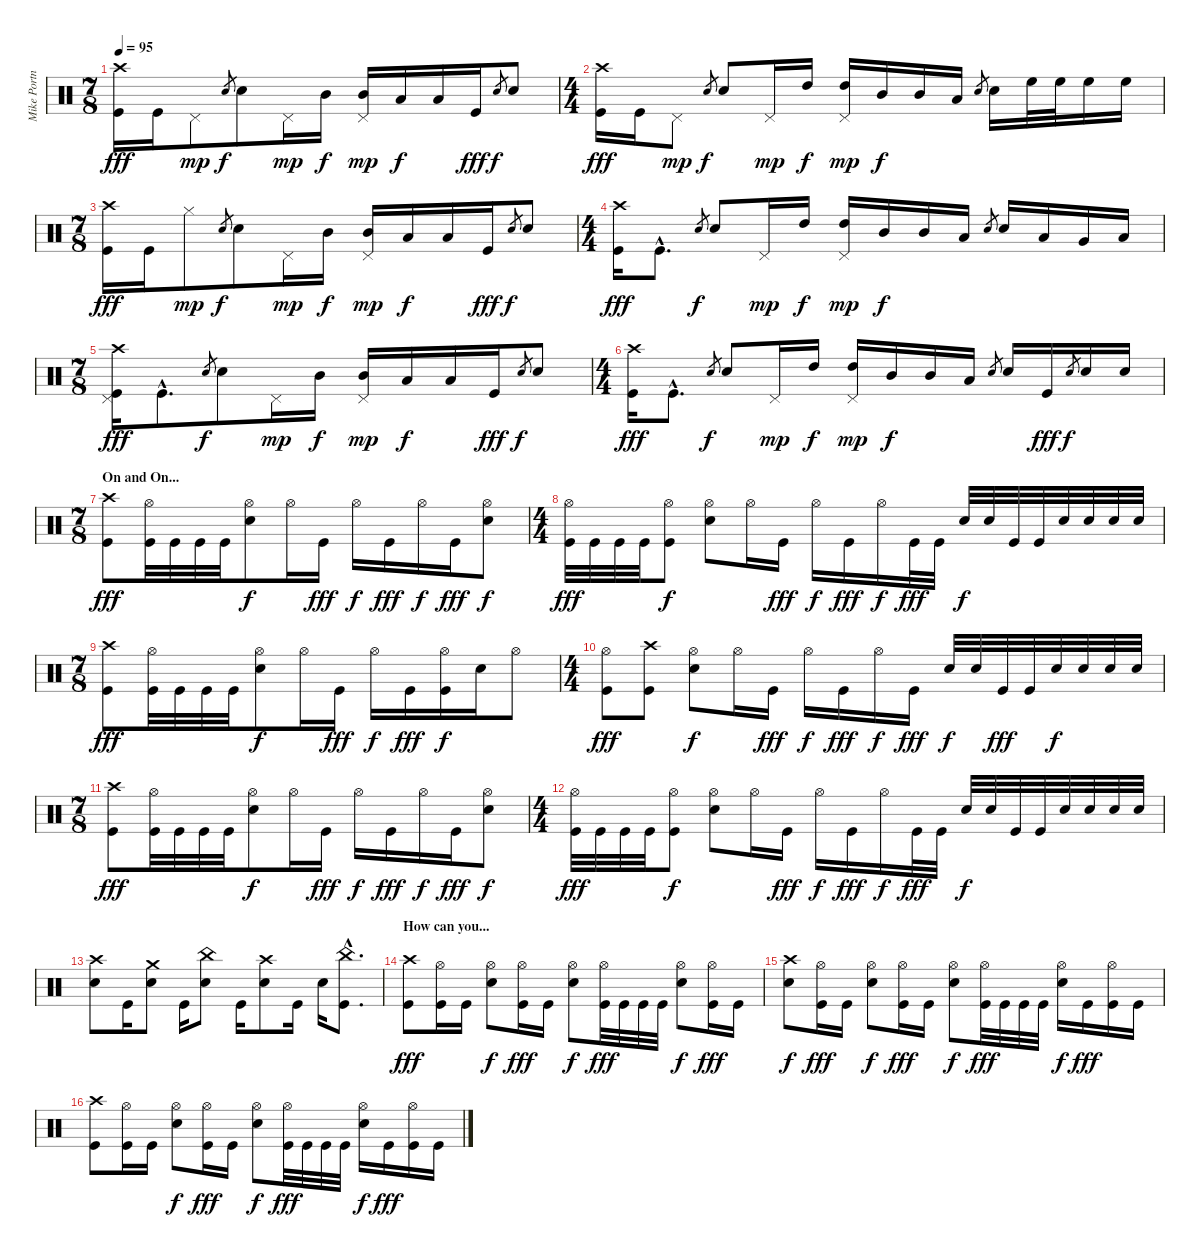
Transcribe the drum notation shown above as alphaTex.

\track ("Mike Portnoy" "Mike Portn") {instrument percussion}
\staff {score}
\articulation defaults
\ts (7 8)
\tempo 95
\clef neutral
\ks c
("Crash high (hit)" "Kick (hit)").16{dy fff} "Kick (hit)".16 "Pedal Hi-Hat (hit)".8{dy mp} "Electric Snare (hit)".8{gr dy f} "Electric Snare (hit)".8 "Pedal Hi-Hat (hit)".16{dy mp} "Mid Tom (hit)".16{dy f} ("Mid Tom (hit)" "Pedal Hi-Hat (hit)").16{dy mp} "Low Tom (hit)".16{dy f} "Low Tom (hit)".16 "Kick (hit)".16{dy fff} "Electric Snare (hit)".8{gr dy f} "Electric Snare (hit)".8 |
\ts (4 4)
("Crash high (hit)" "Kick (hit)").16{dy fff} "Kick (hit)".16 "Pedal Hi-Hat (hit)".8{dy mp} "Electric Snare (hit)".8{gr dy f} "Electric Snare (hit)".8 "Pedal Hi-Hat (hit)".16{dy mp} "High Tom (hit)".16{dy f} ("High Tom (hit)" "Pedal Hi-Hat (hit)").16{dy mp} "Mid Tom (hit)".16{dy f} "Mid Tom (hit)".16 "Low Tom (hit)".16 "Electric Snare (hit)".8{gr} "Electric Snare (hit)".16 "High Floor Tom (hit)".32 "High Floor Tom (hit)".32 "High Floor Tom (hit)".16 "High Floor Tom (hit)".16 |
\ts (7 8)
("Crash high (hit)" "Kick (hit)").16{dy fff} "Kick (hit)".16 "Hi-Hat (closed)".8{dy mp} "Electric Snare (hit)".8{gr dy f} "Electric Snare (hit)".8 "Pedal Hi-Hat (hit)".16{dy mp} "Mid Tom (hit)".16{dy f} ("Mid Tom (hit)" "Pedal Hi-Hat (hit)").16{dy mp} "Low Tom (hit)".16{dy f} "Low Tom (hit)".16 "Kick (hit)".16{dy fff} "Electric Snare (hit)".8{gr dy f} "Electric Snare (hit)".8 |
\ts (4 4)
("Crash high (hit)" "Kick (hit)").16{dy fff} "Kick (hit)"{hac}.8{d} "Electric Snare (hit)".8{gr dy f} "Electric Snare (hit)".8 "Pedal Hi-Hat (hit)".16{dy mp} "High Tom (hit)".16{dy f} ("High Tom (hit)" "Pedal Hi-Hat (hit)").16{dy mp} "Mid Tom (hit)".16{dy f} "Mid Tom (hit)".16 "Low Tom (hit)".16 "Electric Snare (hit)".8{gr} "Electric Snare (hit)".16 "Low Tom (hit)".16 "Very Low Tom (hit)".16 "Low Floor Tom (hit)".16 |
\ts (7 8)
("Crash high (hit)" "Pedal Hi-Hat (hit)" "Kick (hit)").16{dy fff} "Kick (hit)"{hac}.8{d} "Electric Snare (hit)".8{gr dy f} "Electric Snare (hit)".8 "Pedal Hi-Hat (hit)".16{dy mp} "Mid Tom (hit)".16{dy f} ("Mid Tom (hit)" "Pedal Hi-Hat (hit)").16{dy mp} "Low Tom (hit)".16{dy f} "Low Tom (hit)".16 "Kick (hit)".16{dy fff} "Electric Snare (hit)".8{gr dy f} "Electric Snare (hit)".8 |
\ts (4 4)
("Crash high (hit)" "Kick (hit)").16{dy fff} "Kick (hit)"{hac}.8{d} "Electric Snare (hit)".8{gr dy f} "Electric Snare (hit)".8 "Pedal Hi-Hat (hit)".16{dy mp} "High Tom (hit)".16{dy f} ("High Tom (hit)" "Pedal Hi-Hat (hit)").16{dy mp} "Mid Tom (hit)".16{dy f} "Mid Tom (hit)".16 "Low Tom (hit)".16 "Electric Snare (hit)".8{gr} "Electric Snare (hit)".16 "Kick (hit)".16{dy fff} "Electric Snare (hit)".8{gr dy f} "Electric Snare (hit)".16 "Electric Snare (hit)".16 |
\ts (7 8)
\section ("" "On and On...")
("Crash high (hit)" "Kick (hit)").8{dy fff} ("Hi-Hat (open)" "Kick (hit)").32 "Kick (hit)".32 "Kick (hit)".32 "Kick (hit)".32 ("Hi-Hat (open)" "Electric Snare (hit)").8{dy f} "Hi-Hat (open)".16 "Kick (hit)".16{dy fff} "Hi-Hat (open)".16{dy f} "Kick (hit)".16{dy fff} "Hi-Hat (open)".16{dy f} "Kick (hit)".16{dy fff} ("Hi-Hat (open)" "Electric Snare (hit)").8{dy f} |
\ts (4 4)
("Hi-Hat (open)" "Kick (hit)").32{dy fff} "Kick (hit)".32 "Kick (hit)".32 "Kick (hit)".32 ("Hi-Hat (open)" "Kick (hit)").8{dy f} ("Hi-Hat (open)" "Electric Snare (hit)").8 "Hi-Hat (open)".16 "Kick (hit)".16{dy fff} "Hi-Hat (open)".16{dy f} "Kick (hit)".16{dy fff} "Hi-Hat (open)".16{dy f} "Kick (hit)".32{dy fff} "Kick (hit)".32 "Electric Snare (hit)".32{dy f} "Electric Snare (hit)".32 "Kick (hit)".32 "Kick (hit)".32 "Electric Snare (hit)".32 "Electric Snare (hit)".32 "Electric Snare (hit)".32 "Electric Snare (hit)".32 |
\ts (7 8)
("Crash high (hit)" "Kick (hit)").8{dy fff} ("Hi-Hat (open)" "Kick (hit)").32 "Kick (hit)".32 "Kick (hit)".32 "Kick (hit)".32 ("Hi-Hat (open)" "Electric Snare (hit)").8{dy f} "Hi-Hat (open)".16 "Kick (hit)".16{dy fff} "Hi-Hat (open)".16{dy f} "Kick (hit)".16{dy fff} ("Hi-Hat (open)" "Kick (hit)").16{dy f} "Electric Snare (hit)".16 "Hi-Hat (open)".8 |
\ts (4 4)
("Hi-Hat (open)" "Kick (hit)").8{dy fff} ("Crash high (hit)" "Kick (hit)").8 ("Hi-Hat (open)" "Electric Snare (hit)").8{dy f} "Hi-Hat (open)".16 "Kick (hit)".16{dy fff} "Hi-Hat (open)".16{dy f} "Kick (hit)".16{dy fff} "Hi-Hat (open)".16{dy f} "Kick (hit)".16{dy fff} "Electric Snare (hit)".32{dy f} "Electric Snare (hit)".32 "Kick (hit)".32{dy fff} "Kick (hit)".32 "Electric Snare (hit)".32{dy f} "Electric Snare (hit)".32 "Electric Snare (hit)".32 "Electric Snare (hit)".32 |
\ts (7 8)
("Crash high (hit)" "Kick (hit)").8{dy fff} ("Hi-Hat (open)" "Kick (hit)").32 "Kick (hit)".32 "Kick (hit)".32 "Kick (hit)".32 ("Hi-Hat (open)" "Electric Snare (hit)").8{dy f} "Hi-Hat (open)".16 "Kick (hit)".16{dy fff} "Hi-Hat (open)".16{dy f} "Kick (hit)".16{dy fff} "Hi-Hat (open)".16{dy f} "Kick (hit)".16{dy fff} ("Hi-Hat (open)" "Electric Snare (hit)").8{dy f} |
\ts (4 4)
("Hi-Hat (open)" "Kick (hit)").32{dy fff} "Kick (hit)".32 "Kick (hit)".32 "Kick (hit)".32 ("Hi-Hat (open)" "Kick (hit)").8{dy f} ("Hi-Hat (open)" "Electric Snare (hit)").8 "Hi-Hat (open)".16 "Kick (hit)".16{dy fff} "Hi-Hat (open)".16{dy f} "Kick (hit)".16{dy fff} "Hi-Hat (open)".16{dy f} "Kick (hit)".32{dy fff} "Kick (hit)".32 "Electric Snare (hit)".32{dy f} "Electric Snare (hit)".32 "Kick (hit)".32 "Kick (hit)".32 "Electric Snare (hit)".32 "Electric Snare (hit)".32 "Electric Snare (hit)".32 "Electric Snare (hit)".32 |
("Crash high (hit)" "Electric Snare (hit)").8 "Kick (hit)".16 ("Crash medium (hit)" "Electric Snare (hit)").8 "Kick (hit)".16 ("China (hit)" "Electric Snare (hit)").8 "Kick (hit)".16 ("Crash high (hit)" "Electric Snare (hit)").8 "Kick (hit)".16 "Electric Snare (hit)".16 ("China (hit)"{hac} "Kick (hit)"{hac}).8{d} |
\section ("" "How can you...")
("Crash high (hit)" "Kick (hit)").8{dy fff} ("Hi-Hat (open)" "Kick (hit)").16 "Kick (hit)".16 ("Hi-Hat (open)" "Electric Snare (hit)").8{dy f} ("Hi-Hat (open)" "Kick (hit)").16{dy fff} "Kick (hit)".16 ("Hi-Hat (open)" "Electric Snare (hit)").8{dy f} ("Hi-Hat (open)" "Kick (hit)").32{dy fff} "Kick (hit)".32 "Kick (hit)".32 "Kick (hit)".32 ("Hi-Hat (open)" "Electric Snare (hit)").8{dy f} ("Hi-Hat (open)" "Kick (hit)").16{dy fff} "Kick (hit)".16 |
("Crash high (hit)" "Electric Snare (hit)").8{dy f} ("Hi-Hat (open)" "Kick (hit)").16{dy fff} "Kick (hit)".16 ("Hi-Hat (open)" "Electric Snare (hit)").8{dy f} ("Hi-Hat (open)" "Kick (hit)").16{dy fff} "Kick (hit)".16 ("Hi-Hat (open)" "Electric Snare (hit)").8{dy f} ("Hi-Hat (open)" "Kick (hit)").32{dy fff} "Kick (hit)".32 "Kick (hit)".32 "Kick (hit)".32 ("Hi-Hat (open)" "Electric Snare (hit)").16{dy f} "Kick (hit)".16{dy fff} ("Hi-Hat (open)" "Kick (hit)").16 "Kick (hit)".16 |
("Crash high (hit)" "Kick (hit)").8 ("Hi-Hat (open)" "Kick (hit)").16 "Kick (hit)".16 ("Hi-Hat (open)" "Electric Snare (hit)").8{dy f} ("Hi-Hat (open)" "Kick (hit)").16{dy fff} "Kick (hit)".16 ("Hi-Hat (open)" "Electric Snare (hit)").8{dy f} ("Hi-Hat (open)" "Kick (hit)").32{dy fff} "Kick (hit)".32 "Kick (hit)".32 "Kick (hit)".32 ("Hi-Hat (open)" "Electric Snare (hit)").16{dy f} "Kick (hit)".16{dy fff} ("Hi-Hat (open)" "Kick (hit)").16 "Kick (hit)".16
